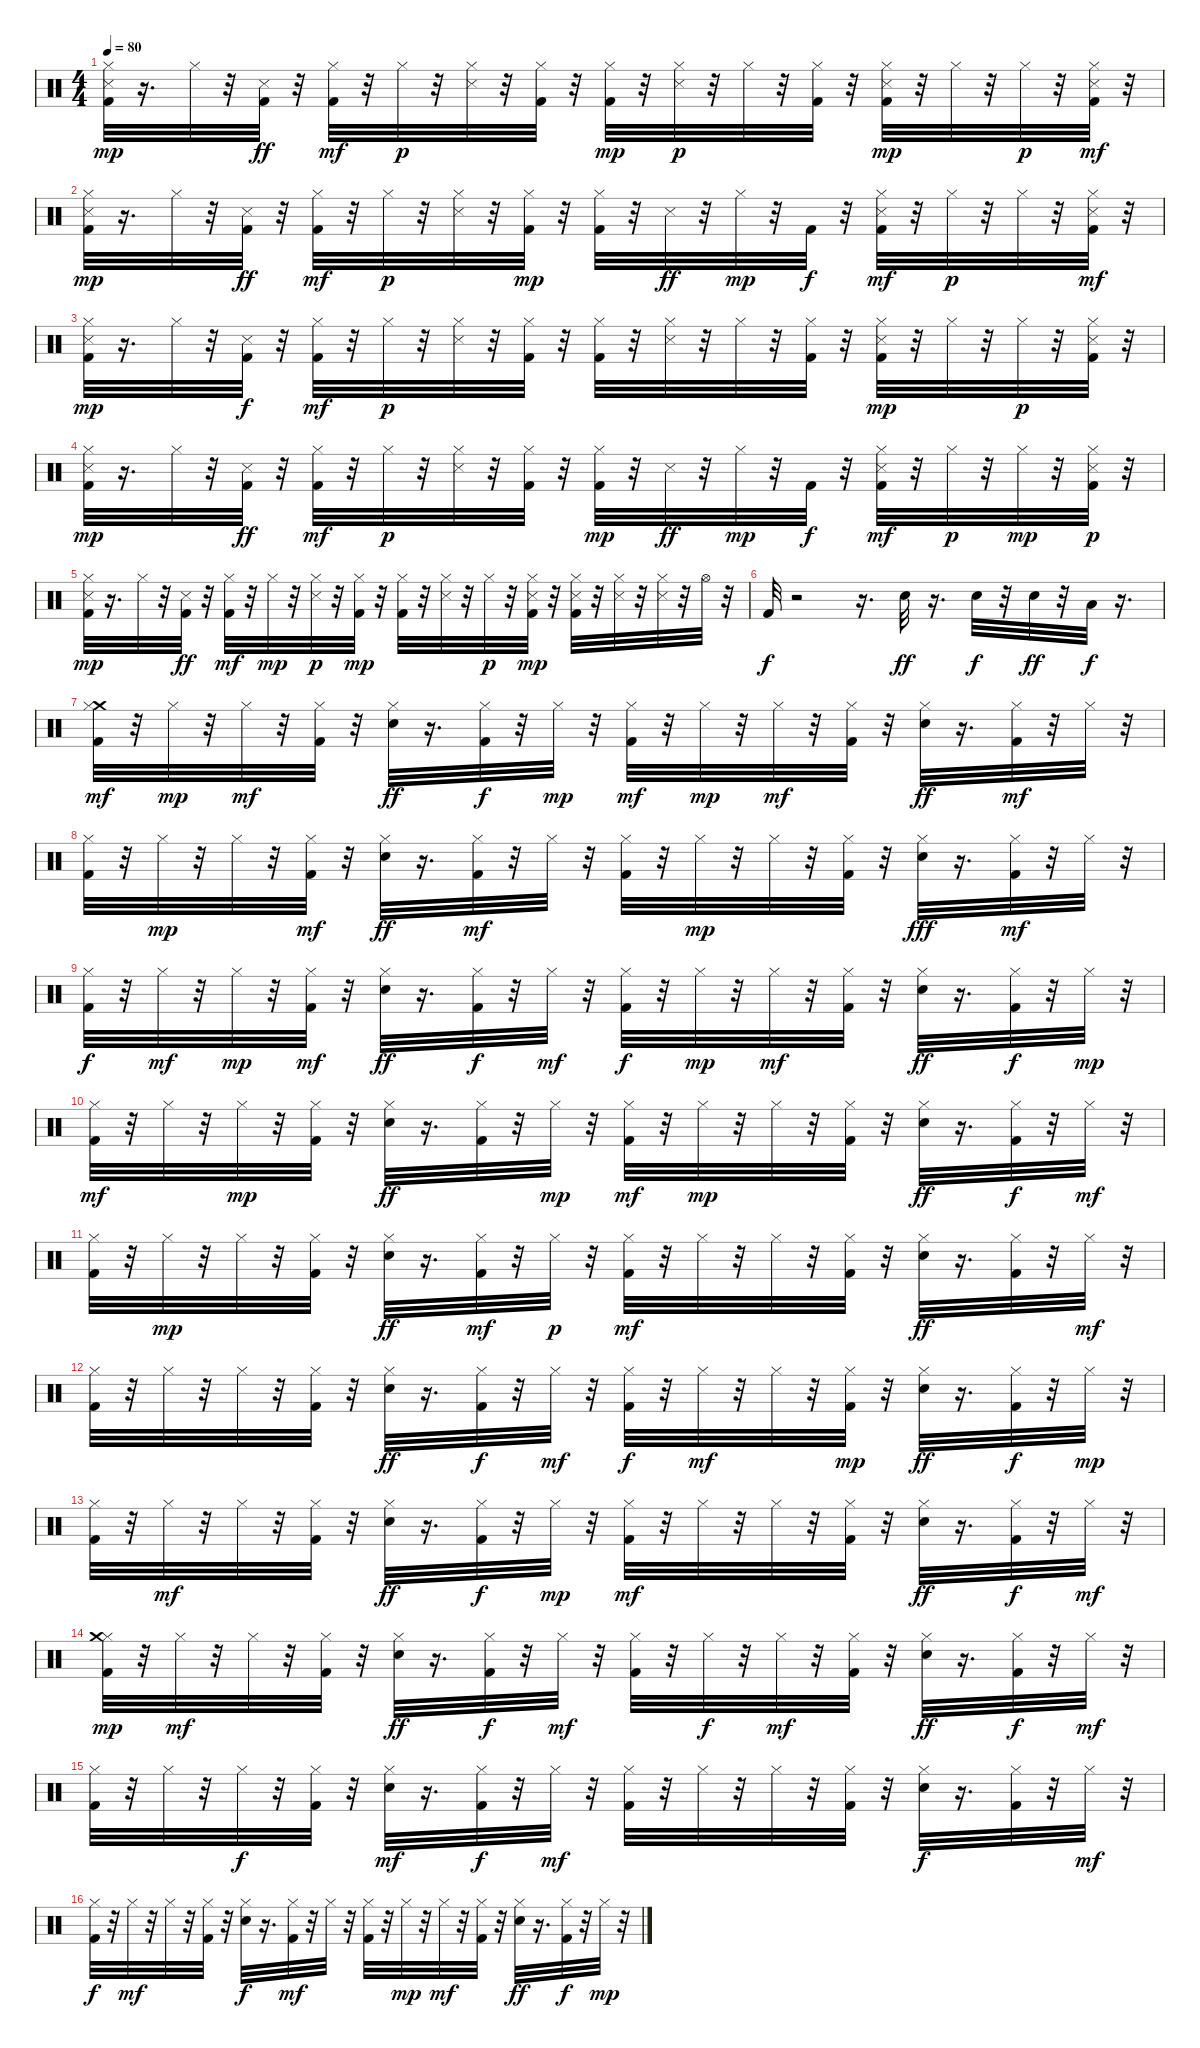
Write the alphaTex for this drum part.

\track "" {instrument percussion}
\staff {score}
\articulation defaults
\ts (4 4)
\tempo 80
\clef neutral
\ks c
("Kick (hit) 2" "Snare (side stick) 3" "Hi-Hat (closed)").32{dy mp} r.16{d} "Hi-Hat (closed)".32 r.32 ("Kick (hit) 2" "Snare (side stick) 3").32{dy ff} r.32 ("Kick (hit) 2" "Hi-Hat (closed)").32{dy mf} r.32 "Hi-Hat (closed)".32{dy p} r.32 ("Snare (side stick) 3" "Hi-Hat (closed)").32 r.32 ("Kick (hit) 2" "Hi-Hat (closed)").32 r.32 ("Kick (hit) 2" "Hi-Hat (closed)").32{dy mp} r.32 ("Snare (side stick) 3" "Hi-Hat (closed)").32{dy p} r.32 "Hi-Hat (closed)".32 r.32 ("Kick (hit) 2" "Hi-Hat (closed)").32 r.32 ("Kick (hit) 2" "Snare (side stick) 3" "Hi-Hat (closed)").32{dy mp} r.32 "Hi-Hat (closed)".32 r.32 "Hi-Hat (closed)".32{dy p} r.32 ("Kick (hit) 2" "Hi-Hat (closed)" "Snare (side stick) 3").32{dy mf} r.32 |
("Kick (hit) 2" "Snare (side stick) 3" "Hi-Hat (closed)").32{dy mp} r.16{d} "Hi-Hat (closed)".32 r.32 ("Kick (hit) 2" "Snare (side stick) 3").32{dy ff} r.32 ("Kick (hit) 2" "Hi-Hat (closed)").32{dy mf} r.32 "Hi-Hat (closed)".32{dy p} r.32 ("Snare (side stick) 3" "Hi-Hat (closed)").32 r.32 ("Kick (hit) 2" "Hi-Hat (closed)").32{dy mp} r.32 ("Kick (hit) 2" "Hi-Hat (closed)").32 r.32 "Snare (side stick) 3".32{dy ff} r.32 "Hi-Hat (closed)".32{dy mp} r.32 "Kick (hit) 2".32{dy f} r.32 ("Kick (hit) 2" "Snare (side stick) 3" "Hi-Hat (closed)").32{dy mf} r.32 "Hi-Hat (closed)".32{dy p} r.32 "Hi-Hat (closed)".32 r.32 ("Kick (hit) 2" "Hi-Hat (closed)" "Snare (side stick) 3").32{dy mf} r.32 |
("Kick (hit) 2" "Snare (side stick) 3" "Hi-Hat (closed)").32{dy mp} r.16{d} "Hi-Hat (closed)".32 r.32 ("Kick (hit) 2" "Snare (side stick) 3").32{dy f} r.32 ("Kick (hit) 2" "Hi-Hat (closed)").32{dy mf} r.32 "Hi-Hat (closed)".32{dy p} r.32 ("Snare (side stick) 3" "Hi-Hat (closed)").32 r.32 ("Kick (hit) 2" "Hi-Hat (closed)").32 r.32 ("Kick (hit) 2" "Hi-Hat (closed)").32 r.32 ("Snare (side stick) 3" "Hi-Hat (closed)").32 r.32 "Hi-Hat (closed)".32 r.32 ("Kick (hit) 2" "Hi-Hat (closed)").32 r.32 ("Kick (hit) 2" "Snare (side stick) 3" "Hi-Hat (closed)").32{dy mp} r.32 "Hi-Hat (closed)".32 r.32 "Hi-Hat (closed)".32{dy p} r.32 ("Kick (hit) 2" "Hi-Hat (closed)" "Snare (side stick) 3").32 r.32 |
("Kick (hit) 2" "Snare (side stick) 3" "Hi-Hat (closed)").32{dy mp} r.16{d} "Hi-Hat (closed)".32 r.32 ("Kick (hit) 2" "Snare (side stick) 3").32{dy ff} r.32 ("Kick (hit) 2" "Hi-Hat (closed)").32{dy mf} r.32 "Hi-Hat (closed)".32{dy p} r.32 ("Snare (side stick) 3" "Hi-Hat (closed)").32 r.32 ("Kick (hit) 2" "Hi-Hat (closed)").32 r.32 ("Kick (hit) 2" "Hi-Hat (closed)").32{dy mp} r.32 "Snare (side stick) 3".32{dy ff} r.32 "Hi-Hat (closed)".32{dy mp} r.32 "Kick (hit) 2".32{dy f} r.32 ("Kick (hit) 2" "Snare (side stick) 3" "Hi-Hat (closed)").32{dy mf} r.32 "Hi-Hat (closed)".32{dy p} r.32 "Hi-Hat (closed)".32{dy mp} r.32 ("Kick (hit) 2" "Hi-Hat (closed)" "Snare (side stick) 3").32{dy p} r.32 |
("Kick (hit) 2" "Snare (side stick) 3" "Hi-Hat (closed)").32{dy mp} r.16{d} "Hi-Hat (closed)".32 r.32 ("Kick (hit) 2" "Snare (side stick) 3").32{dy ff} r.32 ("Kick (hit) 2" "Hi-Hat (closed)").32{dy mf} r.32 "Hi-Hat (closed)".32{dy mp} r.32 ("Snare (side stick) 3" "Hi-Hat (closed)").32{dy p} r.32 ("Kick (hit) 2" "Hi-Hat (closed)").32{dy mp} r.32 ("Kick (hit) 2" "Hi-Hat (closed)").32 r.32 ("Snare (side stick) 3" "Hi-Hat (closed)").32 r.32 "Hi-Hat (closed)".32{dy p} r.32 ("Kick (hit) 2" "Snare (side stick) 3" "Hi-Hat (closed)").32{dy mp} r.32 ("Kick (hit) 2" "Snare (side stick) 3" "Hi-Hat (closed)").32 r.32 ("Snare (side stick) 3" "Hi-Hat (closed)").32 r.32 ("Snare (side stick) 3" "Hi-Hat (closed)").32 r.32 "Hi-Hat (open)".32 r.32 |
"Kick (hit) 2".32{dy f} r.2 r.16{d} "Electric Snare (hit)".32{dy ff} r.16{d} "Electric Snare (hit)".32{dy f} r.32 "Electric Snare (hit)".32{dy ff} r.32 "Low Tom (hit)".32{dy f} r.16{d} |
("Kick (hit) 2" "Crash medium (hit)" "Hi-Hat (closed)").32{dy mf} r.32 "Hi-Hat (closed)".32{dy mp} r.32 "Hi-Hat (closed)".32{dy mf} r.32 ("Kick (hit) 2" "Hi-Hat (closed)").32 r.32 ("Hi-Hat (closed)" "Snare (hit) 2").32{dy ff} r.16{d} ("Kick (hit) 2" "Hi-Hat (closed)").32{dy f} r.32 "Hi-Hat (closed)".32{dy mp} r.32 ("Kick (hit) 2" "Hi-Hat (closed)").32{dy mf} r.32 "Hi-Hat (closed)".32{dy mp} r.32 "Hi-Hat (closed)".32{dy mf} r.32 ("Kick (hit) 2" "Hi-Hat (closed)").32 r.32 ("Hi-Hat (closed)" "Snare (hit) 2").32{dy ff} r.16{d} ("Kick (hit) 2" "Hi-Hat (closed)").32{dy mf} r.32 "Hi-Hat (closed)".32 r.32 |
("Kick (hit) 2" "Hi-Hat (closed)").32 r.32 "Hi-Hat (closed)".32{dy mp} r.32 "Hi-Hat (closed)".32 r.32 ("Kick (hit) 2" "Hi-Hat (closed)").32{dy mf} r.32 ("Hi-Hat (closed)" "Snare (hit) 2").32{dy ff} r.16{d} ("Kick (hit) 2" "Hi-Hat (closed)").32{dy mf} r.32 "Hi-Hat (closed)".32 r.32 ("Kick (hit) 2" "Hi-Hat (closed)").32 r.32 "Hi-Hat (closed)".32{dy mp} r.32 "Hi-Hat (closed)".32 r.32 ("Kick (hit) 2" "Hi-Hat (closed)").32 r.32 ("Hi-Hat (closed)" "Snare (hit) 2").32{dy fff} r.16{d} ("Kick (hit) 2" "Hi-Hat (closed)").32{dy mf} r.32 "Hi-Hat (closed)".32 r.32 |
("Kick (hit) 2" "Hi-Hat (closed)").32{dy f} r.32 "Hi-Hat (closed)".32{dy mf} r.32 "Hi-Hat (closed)".32{dy mp} r.32 ("Kick (hit) 2" "Hi-Hat (closed)").32{dy mf} r.32 ("Hi-Hat (closed)" "Snare (hit) 2").32{dy ff} r.16{d} ("Kick (hit) 2" "Hi-Hat (closed)").32{dy f} r.32 "Hi-Hat (closed)".32{dy mf} r.32 ("Kick (hit) 2" "Hi-Hat (closed)").32{dy f} r.32 "Hi-Hat (closed)".32{dy mp} r.32 "Hi-Hat (closed)".32{dy mf} r.32 ("Kick (hit) 2" "Hi-Hat (closed)").32 r.32 ("Hi-Hat (closed)" "Snare (hit) 2").32{dy ff} r.16{d} ("Kick (hit) 2" "Hi-Hat (closed)").32{dy f} r.32 "Hi-Hat (closed)".32{dy mp} r.32 |
("Kick (hit) 2" "Hi-Hat (closed)").32{dy mf} r.32 "Hi-Hat (closed)".32 r.32 "Hi-Hat (closed)".32{dy mp} r.32 ("Kick (hit) 2" "Hi-Hat (closed)").32 r.32 ("Hi-Hat (closed)" "Snare (hit) 2").32{dy ff} r.16{d} ("Kick (hit) 2" "Hi-Hat (closed)").32 r.32 "Hi-Hat (closed)".32{dy mp} r.32 ("Kick (hit) 2" "Hi-Hat (closed)").32{dy mf} r.32 "Hi-Hat (closed)".32{dy mp} r.32 "Hi-Hat (closed)".32 r.32 ("Kick (hit) 2" "Hi-Hat (closed)").32 r.32 ("Hi-Hat (closed)" "Snare (hit) 2").32{dy ff} r.16{d} ("Kick (hit) 2" "Hi-Hat (closed)").32{dy f} r.32 "Hi-Hat (closed)".32{dy mf} r.32 |
("Kick (hit) 2" "Hi-Hat (closed)").32 r.32 "Hi-Hat (closed)".32{dy mp} r.32 "Hi-Hat (closed)".32 r.32 ("Kick (hit) 2" "Hi-Hat (closed)").32 r.32 ("Hi-Hat (closed)" "Snare (hit) 2").32{dy ff} r.16{d} ("Kick (hit) 2" "Hi-Hat (closed)").32{dy mf} r.32 "Hi-Hat (closed)".32{dy p} r.32 ("Kick (hit) 2" "Hi-Hat (closed)").32{dy mf} r.32 "Hi-Hat (closed)".32 r.32 "Hi-Hat (closed)".32 r.32 ("Kick (hit) 2" "Hi-Hat (closed)").32 r.32 ("Hi-Hat (closed)" "Snare (hit) 2").32{dy ff} r.16{d} ("Kick (hit) 2" "Hi-Hat (closed)").32 r.32 "Hi-Hat (closed)".32{dy mf} r.32 |
("Kick (hit) 2" "Hi-Hat (closed)").32 r.32 "Hi-Hat (closed)".32 r.32 "Hi-Hat (closed)".32 r.32 ("Kick (hit) 2" "Hi-Hat (closed)").32 r.32 ("Hi-Hat (closed)" "Snare (hit) 2").32{dy ff} r.16{d} ("Kick (hit) 2" "Hi-Hat (closed)").32{dy f} r.32 "Hi-Hat (closed)".32{dy mf} r.32 ("Kick (hit) 2" "Hi-Hat (closed)").32{dy f} r.32 "Hi-Hat (closed)".32{dy mf} r.32 "Hi-Hat (closed)".32 r.32 ("Kick (hit) 2" "Hi-Hat (closed)").32{dy mp} r.32 ("Hi-Hat (closed)" "Snare (hit) 2").32{dy ff} r.16{d} ("Kick (hit) 2" "Hi-Hat (closed)").32{dy f} r.32 "Hi-Hat (closed)".32{dy mp} r.32 |
("Kick (hit) 2" "Hi-Hat (closed)").32 r.32 "Hi-Hat (closed)".32{dy mf} r.32 "Hi-Hat (closed)".32 r.32 ("Kick (hit) 2" "Hi-Hat (closed)").32 r.32 ("Hi-Hat (closed)" "Snare (hit) 2").32{dy ff} r.16{d} ("Kick (hit) 2" "Hi-Hat (closed)").32{dy f} r.32 "Hi-Hat (closed)".32{dy mp} r.32 ("Kick (hit) 2" "Hi-Hat (closed)").32{dy mf} r.32 "Hi-Hat (closed)".32 r.32 "Hi-Hat (closed)".32 r.32 ("Kick (hit) 2" "Hi-Hat (closed)").32 r.32 ("Hi-Hat (closed)" "Snare (hit) 2").32{dy ff} r.16{d} ("Kick (hit) 2" "Hi-Hat (closed)").32{dy f} r.32 "Hi-Hat (closed)".32{dy mf} r.32 |
("Kick (hit) 2" "Hi-Hat (closed)" "Crash medium (hit)").32{dy mp} r.32 "Hi-Hat (closed)".32{dy mf} r.32 "Hi-Hat (closed)".32 r.32 ("Kick (hit) 2" "Hi-Hat (closed)").32 r.32 ("Hi-Hat (closed)" "Snare (hit) 2").32{dy ff} r.16{d} ("Kick (hit) 2" "Hi-Hat (closed)").32{dy f} r.32 "Hi-Hat (closed)".32{dy mf} r.32 ("Kick (hit) 2" "Hi-Hat (closed)").32 r.32 "Hi-Hat (closed)".32{dy f} r.32 "Hi-Hat (closed)".32{dy mf} r.32 ("Kick (hit) 2" "Hi-Hat (closed)").32 r.32 ("Hi-Hat (closed)" "Snare (hit) 2").32{dy ff} r.16{d} ("Kick (hit) 2" "Hi-Hat (closed)").32{dy f} r.32 "Hi-Hat (closed)".32{dy mf} r.32 |
("Kick (hit) 2" "Hi-Hat (closed)").32 r.32 "Hi-Hat (closed)".32 r.32 "Hi-Hat (closed)".32{dy f} r.32 ("Kick (hit) 2" "Hi-Hat (closed)").32 r.32 ("Hi-Hat (closed)" "Snare (hit) 2").32{dy mf} r.16{d} ("Kick (hit) 2" "Hi-Hat (closed)").32{dy f} r.32 "Hi-Hat (closed)".32{dy mf} r.32 ("Kick (hit) 2" "Hi-Hat (closed)").32 r.32 "Hi-Hat (closed)".32 r.32 "Hi-Hat (closed)".32 r.32 ("Kick (hit) 2" "Hi-Hat (closed)").32 r.32 ("Hi-Hat (closed)" "Snare (hit) 2").32{dy f} r.16{d} ("Kick (hit) 2" "Hi-Hat (closed)").32 r.32 "Hi-Hat (closed)".32{dy mf} r.32 |
("Kick (hit) 2" "Hi-Hat (closed)").32{dy f} r.32 "Hi-Hat (closed)".32{dy mf} r.32 "Hi-Hat (closed)".32 r.32 ("Kick (hit) 2" "Hi-Hat (closed)").32 r.32 ("Hi-Hat (closed)" "Snare (hit) 2").32{dy f} r.16{d} ("Kick (hit) 2" "Hi-Hat (closed)").32{dy mf} r.32 "Hi-Hat (closed)".32 r.32 ("Kick (hit) 2" "Hi-Hat (closed)").32 r.32 "Hi-Hat (closed)".32{dy mp} r.32 "Hi-Hat (closed)".32{dy mf} r.32 ("Kick (hit) 2" "Hi-Hat (closed)").32 r.32 ("Hi-Hat (closed)" "Snare (hit) 2").32{dy ff} r.16{d} ("Kick (hit) 2" "Hi-Hat (closed)").32{dy f} r.32 "Hi-Hat (closed)".32{dy mp} r.32
